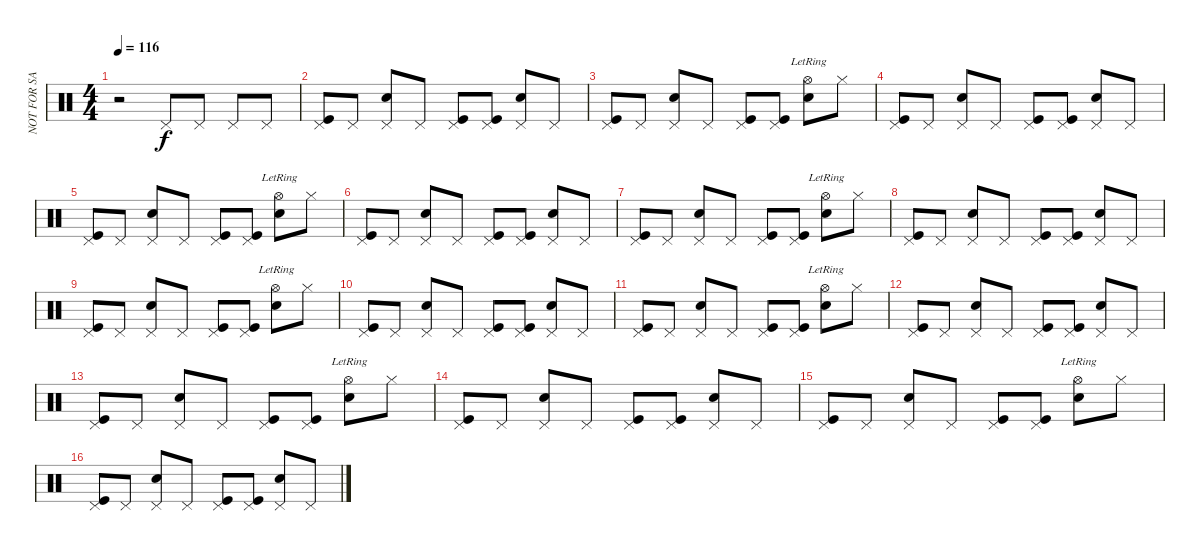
\track ("NOT FOR SALE OR PROFIT" "NOT FOR SA") {instrument percussion}
\staff {score}
\articulation defaults
\ts (4 4)
\tempo 116
\clef neutral
\ks c
r.2{dy f} "Pedal Hi-Hat (hit)".8 "Pedal Hi-Hat (hit)".8 "Pedal Hi-Hat (hit)".8 "Pedal Hi-Hat (hit)".8 |
("Pedal Hi-Hat (hit)" "Kick (hit)").8 "Pedal Hi-Hat (hit)".8 ("Pedal Hi-Hat (hit)" "Snare (hit) 2").8 "Pedal Hi-Hat (hit)".8 ("Pedal Hi-Hat (hit)" "Kick (hit)").8 ("Pedal Hi-Hat (hit)" "Kick (hit)").8 ("Pedal Hi-Hat (hit)" "Snare (hit) 2").8 "Pedal Hi-Hat (hit)".8 |
("Pedal Hi-Hat (hit)" "Kick (hit)").8 "Pedal Hi-Hat (hit)".8 ("Pedal Hi-Hat (hit)" "Snare (hit) 2").8 "Pedal Hi-Hat (hit)".8 ("Pedal Hi-Hat (hit)" "Kick (hit)").8 ("Pedal Hi-Hat (hit)" "Kick (hit)").8 ("Hi-Hat (open)"{lr} "Snare (hit) 2").8 "Hi-Hat (closed)".8 |
("Pedal Hi-Hat (hit)" "Kick (hit)").8 "Pedal Hi-Hat (hit)".8 ("Pedal Hi-Hat (hit)" "Snare (hit) 2").8 "Pedal Hi-Hat (hit)".8 ("Pedal Hi-Hat (hit)" "Kick (hit)").8 ("Pedal Hi-Hat (hit)" "Kick (hit)").8 ("Pedal Hi-Hat (hit)" "Snare (hit) 2").8 "Pedal Hi-Hat (hit)".8 |
("Pedal Hi-Hat (hit)" "Kick (hit)").8 "Pedal Hi-Hat (hit)".8 ("Pedal Hi-Hat (hit)" "Snare (hit) 2").8 "Pedal Hi-Hat (hit)".8 ("Pedal Hi-Hat (hit)" "Kick (hit)").8 ("Pedal Hi-Hat (hit)" "Kick (hit)").8 ("Hi-Hat (open)"{lr} "Snare (hit) 2").8 "Hi-Hat (closed)".8 |
("Pedal Hi-Hat (hit)" "Kick (hit)").8 "Pedal Hi-Hat (hit)".8 ("Pedal Hi-Hat (hit)" "Snare (hit) 2").8 "Pedal Hi-Hat (hit)".8 ("Pedal Hi-Hat (hit)" "Kick (hit)").8 ("Pedal Hi-Hat (hit)" "Kick (hit)").8 ("Pedal Hi-Hat (hit)" "Snare (hit) 2").8 "Pedal Hi-Hat (hit)".8 |
("Pedal Hi-Hat (hit)" "Kick (hit)").8 "Pedal Hi-Hat (hit)".8 ("Pedal Hi-Hat (hit)" "Snare (hit) 2").8 "Pedal Hi-Hat (hit)".8 ("Pedal Hi-Hat (hit)" "Kick (hit)").8 ("Pedal Hi-Hat (hit)" "Kick (hit)").8 ("Hi-Hat (open)"{lr} "Snare (hit) 2").8 "Hi-Hat (closed)".8 |
("Pedal Hi-Hat (hit)" "Kick (hit)").8 "Pedal Hi-Hat (hit)".8 ("Pedal Hi-Hat (hit)" "Snare (hit) 2").8 "Pedal Hi-Hat (hit)".8 ("Pedal Hi-Hat (hit)" "Kick (hit)").8 ("Pedal Hi-Hat (hit)" "Kick (hit)").8 ("Pedal Hi-Hat (hit)" "Snare (hit) 2").8 "Pedal Hi-Hat (hit)".8 |
("Pedal Hi-Hat (hit)" "Kick (hit)").8 "Pedal Hi-Hat (hit)".8 ("Pedal Hi-Hat (hit)" "Snare (hit) 2").8 "Pedal Hi-Hat (hit)".8 ("Pedal Hi-Hat (hit)" "Kick (hit)").8 ("Pedal Hi-Hat (hit)" "Kick (hit)").8 ("Hi-Hat (open)"{lr} "Snare (hit) 2").8 "Hi-Hat (closed)".8 |
("Pedal Hi-Hat (hit)" "Kick (hit)").8 "Pedal Hi-Hat (hit)".8 ("Pedal Hi-Hat (hit)" "Snare (hit) 2").8 "Pedal Hi-Hat (hit)".8 ("Pedal Hi-Hat (hit)" "Kick (hit)").8 ("Pedal Hi-Hat (hit)" "Kick (hit)").8 ("Pedal Hi-Hat (hit)" "Snare (hit) 2").8 "Pedal Hi-Hat (hit)".8 |
("Pedal Hi-Hat (hit)" "Kick (hit)").8 "Pedal Hi-Hat (hit)".8 ("Pedal Hi-Hat (hit)" "Snare (hit) 2").8 "Pedal Hi-Hat (hit)".8 ("Pedal Hi-Hat (hit)" "Kick (hit)").8 ("Pedal Hi-Hat (hit)" "Kick (hit)").8 ("Hi-Hat (open)"{lr} "Snare (hit) 2").8 "Hi-Hat (closed)".8 |
("Pedal Hi-Hat (hit)" "Kick (hit)").8 "Pedal Hi-Hat (hit)".8 ("Pedal Hi-Hat (hit)" "Snare (hit) 2").8 "Pedal Hi-Hat (hit)".8 ("Pedal Hi-Hat (hit)" "Kick (hit)").8 ("Pedal Hi-Hat (hit)" "Kick (hit)").8 ("Pedal Hi-Hat (hit)" "Snare (hit) 2").8 "Pedal Hi-Hat (hit)".8 |
("Pedal Hi-Hat (hit)" "Kick (hit)").8 "Pedal Hi-Hat (hit)".8 ("Pedal Hi-Hat (hit)" "Snare (hit) 2").8 "Pedal Hi-Hat (hit)".8 ("Pedal Hi-Hat (hit)" "Kick (hit)").8 ("Pedal Hi-Hat (hit)" "Kick (hit)").8 ("Hi-Hat (open)"{lr} "Snare (hit) 2").8 "Hi-Hat (closed)".8 |
("Pedal Hi-Hat (hit)" "Kick (hit)").8 "Pedal Hi-Hat (hit)".8 ("Pedal Hi-Hat (hit)" "Snare (hit) 2").8 "Pedal Hi-Hat (hit)".8 ("Pedal Hi-Hat (hit)" "Kick (hit)").8 ("Pedal Hi-Hat (hit)" "Kick (hit)").8 ("Pedal Hi-Hat (hit)" "Snare (hit) 2").8 "Pedal Hi-Hat (hit)".8 |
("Pedal Hi-Hat (hit)" "Kick (hit)").8 "Pedal Hi-Hat (hit)".8 ("Pedal Hi-Hat (hit)" "Snare (hit) 2").8 "Pedal Hi-Hat (hit)".8 ("Pedal Hi-Hat (hit)" "Kick (hit)").8 ("Pedal Hi-Hat (hit)" "Kick (hit)").8 ("Hi-Hat (open)"{lr} "Snare (hit) 2").8 "Hi-Hat (closed)".8 |
("Pedal Hi-Hat (hit)" "Kick (hit)").8 "Pedal Hi-Hat (hit)".8 ("Pedal Hi-Hat (hit)" "Snare (hit) 2").8 "Pedal Hi-Hat (hit)".8 ("Pedal Hi-Hat (hit)" "Kick (hit)").8 ("Pedal Hi-Hat (hit)" "Kick (hit)").8 ("Pedal Hi-Hat (hit)" "Snare (hit) 2").8 "Pedal Hi-Hat (hit)".8
